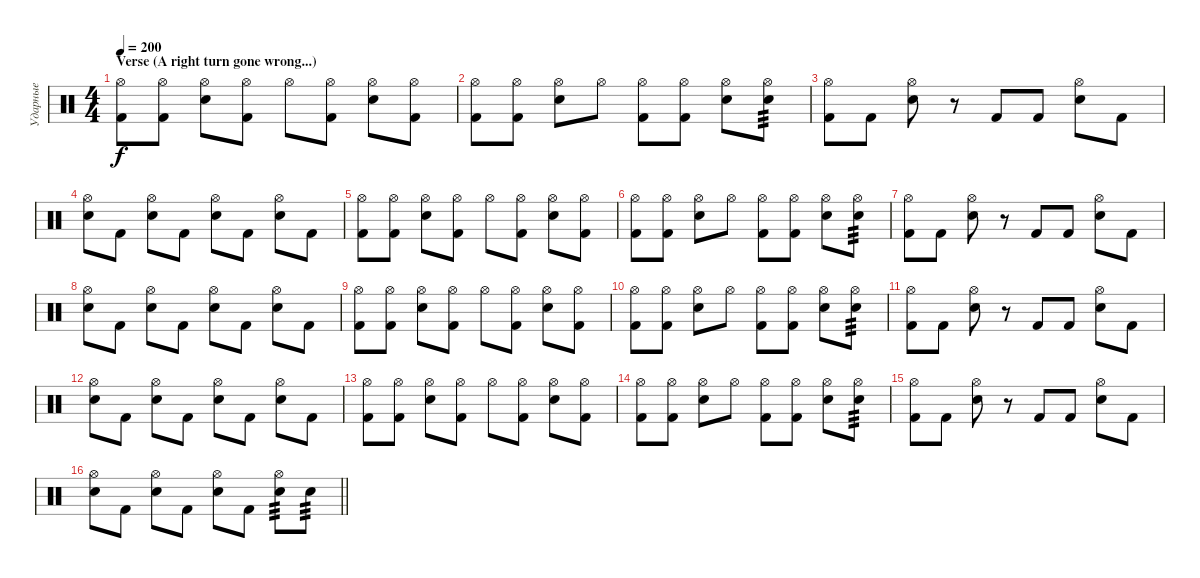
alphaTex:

\track ("Ударные" "Ударные") {instrument percussion}
\staff {score}
\articulation defaults
\ts (4 4)
\section ("" "Verse (A right turn gone wrong...)")
\tempo 200
\clef neutral
\ks c
("Kick (hit) 2" "Hi-Hat (open)").8{dy f} ("Kick (hit) 2" "Hi-Hat (open)").8 ("Snare (hit) 2" "Hi-Hat (open)").8 ("Kick (hit) 2" "Hi-Hat (open)").8 "Hi-Hat (open)".8 ("Kick (hit) 2" "Hi-Hat (open)").8 ("Snare (hit) 2" "Hi-Hat (open)").8 ("Kick (hit) 2" "Hi-Hat (open)").8 |
("Kick (hit) 2" "Hi-Hat (open)").8 ("Kick (hit) 2" "Hi-Hat (open)").8 ("Snare (hit) 2" "Hi-Hat (open)").8 "Hi-Hat (open)".8 ("Kick (hit) 2" "Hi-Hat (open)").8 ("Kick (hit) 2" "Hi-Hat (open)").8 ("Snare (hit) 2" "Hi-Hat (open)").8 ("Snare (hit) 2" "Hi-Hat (open)").8{tp 3} |
("Kick (hit) 2" "Hi-Hat (open)").8 "Kick (hit) 2".8 ("Snare (hit) 2" "Hi-Hat (open)").8 r.8 "Kick (hit) 2".8 "Kick (hit) 2".8 ("Snare (hit) 2" "Hi-Hat (open)").8 "Kick (hit) 2".8 |
("Snare (hit) 2" "Hi-Hat (open)").8 "Kick (hit) 2".8 ("Snare (hit) 2" "Hi-Hat (open)").8 "Kick (hit) 2".8 ("Snare (hit) 2" "Hi-Hat (open)").8 "Kick (hit) 2".8 ("Snare (hit) 2" "Hi-Hat (open)").8 "Kick (hit) 2".8 |
("Kick (hit) 2" "Hi-Hat (open)").8 ("Kick (hit) 2" "Hi-Hat (open)").8 ("Snare (hit) 2" "Hi-Hat (open)").8 ("Kick (hit) 2" "Hi-Hat (open)").8 "Hi-Hat (open)".8 ("Kick (hit) 2" "Hi-Hat (open)").8 ("Snare (hit) 2" "Hi-Hat (open)").8 ("Kick (hit) 2" "Hi-Hat (open)").8 |
("Kick (hit) 2" "Hi-Hat (open)").8 ("Kick (hit) 2" "Hi-Hat (open)").8 ("Snare (hit) 2" "Hi-Hat (open)").8 "Hi-Hat (open)".8 ("Kick (hit) 2" "Hi-Hat (open)").8 ("Kick (hit) 2" "Hi-Hat (open)").8 ("Snare (hit) 2" "Hi-Hat (open)").8 ("Snare (hit) 2" "Hi-Hat (open)").8{tp 3} |
("Kick (hit) 2" "Hi-Hat (open)").8 "Kick (hit) 2".8 ("Snare (hit) 2" "Hi-Hat (open)").8 r.8 "Kick (hit) 2".8 "Kick (hit) 2".8 ("Snare (hit) 2" "Hi-Hat (open)").8 "Kick (hit) 2".8 |
("Snare (hit) 2" "Hi-Hat (open)").8 "Kick (hit) 2".8 ("Snare (hit) 2" "Hi-Hat (open)").8 "Kick (hit) 2".8 ("Snare (hit) 2" "Hi-Hat (open)").8 "Kick (hit) 2".8 ("Snare (hit) 2" "Hi-Hat (open)").8 "Kick (hit) 2".8 |
("Kick (hit) 2" "Hi-Hat (open)").8 ("Kick (hit) 2" "Hi-Hat (open)").8 ("Snare (hit) 2" "Hi-Hat (open)").8 ("Kick (hit) 2" "Hi-Hat (open)").8 "Hi-Hat (open)".8 ("Kick (hit) 2" "Hi-Hat (open)").8 ("Snare (hit) 2" "Hi-Hat (open)").8 ("Kick (hit) 2" "Hi-Hat (open)").8 |
("Kick (hit) 2" "Hi-Hat (open)").8 ("Kick (hit) 2" "Hi-Hat (open)").8 ("Snare (hit) 2" "Hi-Hat (open)").8 "Hi-Hat (open)".8 ("Kick (hit) 2" "Hi-Hat (open)").8 ("Kick (hit) 2" "Hi-Hat (open)").8 ("Snare (hit) 2" "Hi-Hat (open)").8 ("Snare (hit) 2" "Hi-Hat (open)").8{tp 3} |
("Kick (hit) 2" "Hi-Hat (open)").8 "Kick (hit) 2".8 ("Snare (hit) 2" "Hi-Hat (open)").8 r.8 "Kick (hit) 2".8 "Kick (hit) 2".8 ("Snare (hit) 2" "Hi-Hat (open)").8 "Kick (hit) 2".8 |
("Snare (hit) 2" "Hi-Hat (open)").8 "Kick (hit) 2".8 ("Snare (hit) 2" "Hi-Hat (open)").8 "Kick (hit) 2".8 ("Snare (hit) 2" "Hi-Hat (open)").8 "Kick (hit) 2".8 ("Snare (hit) 2" "Hi-Hat (open)").8 "Kick (hit) 2".8 |
("Kick (hit) 2" "Hi-Hat (open)").8 ("Kick (hit) 2" "Hi-Hat (open)").8 ("Snare (hit) 2" "Hi-Hat (open)").8 ("Kick (hit) 2" "Hi-Hat (open)").8 "Hi-Hat (open)".8 ("Kick (hit) 2" "Hi-Hat (open)").8 ("Snare (hit) 2" "Hi-Hat (open)").8 ("Kick (hit) 2" "Hi-Hat (open)").8 |
("Kick (hit) 2" "Hi-Hat (open)").8 ("Kick (hit) 2" "Hi-Hat (open)").8 ("Snare (hit) 2" "Hi-Hat (open)").8 "Hi-Hat (open)".8 ("Kick (hit) 2" "Hi-Hat (open)").8 ("Kick (hit) 2" "Hi-Hat (open)").8 ("Snare (hit) 2" "Hi-Hat (open)").8 ("Snare (hit) 2" "Hi-Hat (open)").8{tp 3} |
("Kick (hit) 2" "Hi-Hat (open)").8 "Kick (hit) 2".8 ("Snare (hit) 2" "Hi-Hat (open)").8 r.8 "Kick (hit) 2".8 "Kick (hit) 2".8 ("Snare (hit) 2" "Hi-Hat (open)").8 "Kick (hit) 2".8 |
\barLineRight lightlight
("Snare (hit) 2" "Hi-Hat (open)").8 "Kick (hit) 2".8 ("Snare (hit) 2" "Hi-Hat (open)").8 "Kick (hit) 2".8 ("Snare (hit) 2" "Hi-Hat (open)").8 "Kick (hit) 2".8 ("Snare (hit) 2" "Hi-Hat (open)").8{tp 3} "Snare (hit) 2".8{tp 3}
